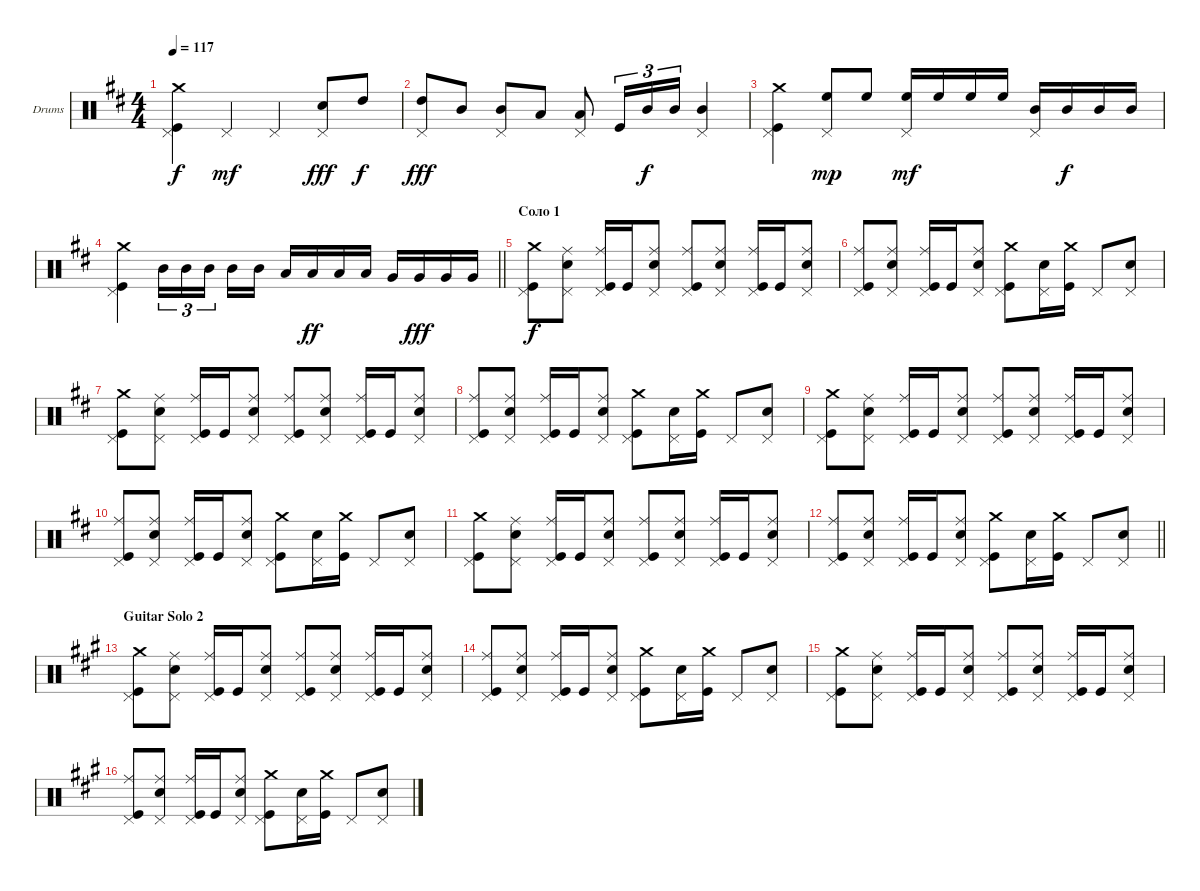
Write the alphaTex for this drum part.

\bracketExtendMode groupsimilarinstruments
\firstSystemTrackNameOrientation horizontal
\otherSystemsTrackNameOrientation horizontal
\track ("Барабаны" "Drums") {instrument percussion}
\staff {score}
\articulation defaults
\ts (4 4)
\tempo 117
\clef neutral
\ks d
("Pedal Hi-Hat (hit)" "Kick (hit)" "Crash medium (hit)").4{dy f} "Pedal Hi-Hat (hit)".4{dy mf} "Pedal Hi-Hat (hit)".4 ("Snare (hit) 2" "Pedal Hi-Hat (hit)").8{dy fff} "High Tom (hit)".8{dy f} |
("High Tom (hit)" "Pedal Hi-Hat (hit)").8{dy fff} "Mid Tom (hit)".8 ("Mid Tom (hit)" "Pedal Hi-Hat (hit)").8 "Low Tom (hit)".8 ("Low Tom (hit)" "Pedal Hi-Hat (hit)").8 "Kick (hit)".16{tu (3 2)} "Mid Tom (hit)".16{tu (3 2) dy f} "Mid Tom (hit)".16{tu (3 2)} ("Mid Tom (hit)" "Pedal Hi-Hat (hit)").4 |
("Kick (hit)" "Crash medium (hit)" "Pedal Hi-Hat (hit)").4 ("High Floor Tom (hit)" "Pedal Hi-Hat (hit)").8{dy mp} "High Floor Tom (hit)".8 ("High Floor Tom (hit)" "Pedal Hi-Hat (hit)").16{dy mf} "High Floor Tom (hit)".16 "High Floor Tom (hit)".16 "High Floor Tom (hit)".16 ("Mid Tom (hit)" "Pedal Hi-Hat (hit)").16 "Mid Tom (hit)".16{dy f} "Mid Tom (hit)".16 "Mid Tom (hit)".16 |
\barLineRight lightlight
("Kick (hit)" "Crash medium (hit)" "Pedal Hi-Hat (hit)").4 "Mid Tom (hit)".16{tu (3 2)} "Mid Tom (hit)".16{tu (3 2)} "Mid Tom (hit)".16{tu (3 2)} "Mid Tom (hit)".16 "Mid Tom (hit)".16 "Low Tom (hit)".16 "Low Tom (hit)".16{dy ff} "Low Tom (hit)".16 "Low Tom (hit)".16 "Very Low Tom (hit)".16 "Very Low Tom (hit)".16{dy fff} "Very Low Tom (hit)".16 "Very Low Tom (hit)".16 |
\section ("" "Соло 1")
("Kick (hit)" "Crash medium (hit)" "Pedal Hi-Hat (hit)").8{dy f} ("Snare (hit) 2" "Pedal Hi-Hat (hit)" "Ride (middle)").8 ("Kick (hit)" "Pedal Hi-Hat (hit)" "Ride (middle)").16 "Kick (hit)".16 ("Snare (hit) 2" "Pedal Hi-Hat (hit)" "Ride (middle)").8 ("Kick (hit)" "Pedal Hi-Hat (hit)" "Ride (middle)").8 ("Snare (hit) 2" "Pedal Hi-Hat (hit)" "Ride (middle)").8 ("Kick (hit)" "Pedal Hi-Hat (hit)" "Ride (middle)").16 "Kick (hit)".16 ("Snare (hit) 2" "Pedal Hi-Hat (hit)" "Ride (middle)").8 |
("Kick (hit)" "Ride (middle)" "Pedal Hi-Hat (hit)").8 ("Snare (hit) 2" "Ride (middle)" "Pedal Hi-Hat (hit)").8 ("Kick (hit)" "Ride (middle)" "Pedal Hi-Hat (hit)").16 "Kick (hit)".16 ("Snare (hit) 2" "Ride (middle)" "Pedal Hi-Hat (hit)").8 ("Kick (hit)" "Crash medium (hit)" "Pedal Hi-Hat (hit)").8 ("Snare (hit) 2" "Pedal Hi-Hat (hit)").16 ("Kick (hit)" "Crash medium (hit)").16 "Pedal Hi-Hat (hit)".8 ("Snare (hit) 2" "Pedal Hi-Hat (hit)").8 |
("Kick (hit)" "Crash medium (hit)" "Pedal Hi-Hat (hit)").8 ("Snare (hit) 2" "Pedal Hi-Hat (hit)" "Ride (middle)").8 ("Kick (hit)" "Pedal Hi-Hat (hit)" "Ride (middle)").16 "Kick (hit)".16 ("Snare (hit) 2" "Pedal Hi-Hat (hit)" "Ride (middle)").8 ("Kick (hit)" "Pedal Hi-Hat (hit)" "Ride (middle)").8 ("Snare (hit) 2" "Pedal Hi-Hat (hit)" "Ride (middle)").8 ("Kick (hit)" "Pedal Hi-Hat (hit)" "Ride (middle)").16 "Kick (hit)".16 ("Snare (hit) 2" "Pedal Hi-Hat (hit)" "Ride (middle)").8 |
("Kick (hit)" "Ride (middle)" "Pedal Hi-Hat (hit)").8 ("Snare (hit) 2" "Ride (middle)" "Pedal Hi-Hat (hit)").8 ("Kick (hit)" "Ride (middle)" "Pedal Hi-Hat (hit)").16 "Kick (hit)".16 ("Snare (hit) 2" "Ride (middle)" "Pedal Hi-Hat (hit)").8 ("Kick (hit)" "Crash medium (hit)" "Pedal Hi-Hat (hit)").8 ("Snare (hit) 2" "Pedal Hi-Hat (hit)").16 ("Kick (hit)" "Crash medium (hit)").16 "Pedal Hi-Hat (hit)".8 ("Snare (hit) 2" "Pedal Hi-Hat (hit)").8 |
("Kick (hit)" "Crash medium (hit)" "Pedal Hi-Hat (hit)").8 ("Snare (hit) 2" "Pedal Hi-Hat (hit)" "Ride (middle)").8 ("Kick (hit)" "Pedal Hi-Hat (hit)" "Ride (middle)").16 "Kick (hit)".16 ("Snare (hit) 2" "Pedal Hi-Hat (hit)" "Ride (middle)").8 ("Kick (hit)" "Pedal Hi-Hat (hit)" "Ride (middle)").8 ("Snare (hit) 2" "Pedal Hi-Hat (hit)" "Ride (middle)").8 ("Kick (hit)" "Pedal Hi-Hat (hit)" "Ride (middle)").16 "Kick (hit)".16 ("Snare (hit) 2" "Pedal Hi-Hat (hit)" "Ride (middle)").8 |
("Kick (hit)" "Ride (middle)" "Pedal Hi-Hat (hit)").8 ("Snare (hit) 2" "Ride (middle)" "Pedal Hi-Hat (hit)").8 ("Kick (hit)" "Ride (middle)" "Pedal Hi-Hat (hit)").16 "Kick (hit)".16 ("Snare (hit) 2" "Ride (middle)" "Pedal Hi-Hat (hit)").8 ("Kick (hit)" "Crash medium (hit)" "Pedal Hi-Hat (hit)").8 ("Snare (hit) 2" "Pedal Hi-Hat (hit)").16 ("Kick (hit)" "Crash medium (hit)").16 "Pedal Hi-Hat (hit)".8 ("Snare (hit) 2" "Pedal Hi-Hat (hit)").8 |
("Kick (hit)" "Crash medium (hit)" "Pedal Hi-Hat (hit)").8 ("Snare (hit) 2" "Pedal Hi-Hat (hit)" "Ride (middle)").8 ("Kick (hit)" "Pedal Hi-Hat (hit)" "Ride (middle)").16 "Kick (hit)".16 ("Snare (hit) 2" "Pedal Hi-Hat (hit)" "Ride (middle)").8 ("Kick (hit)" "Pedal Hi-Hat (hit)" "Ride (middle)").8 ("Snare (hit) 2" "Pedal Hi-Hat (hit)" "Ride (middle)").8 ("Kick (hit)" "Pedal Hi-Hat (hit)" "Ride (middle)").16 "Kick (hit)".16 ("Snare (hit) 2" "Pedal Hi-Hat (hit)" "Ride (middle)").8 |
\barLineRight lightlight
("Kick (hit)" "Ride (middle)" "Pedal Hi-Hat (hit)").8 ("Snare (hit) 2" "Ride (middle)" "Pedal Hi-Hat (hit)").8 ("Kick (hit)" "Ride (middle)" "Pedal Hi-Hat (hit)").16 "Kick (hit)".16 ("Snare (hit) 2" "Ride (middle)" "Pedal Hi-Hat (hit)").8 ("Kick (hit)" "Crash medium (hit)" "Pedal Hi-Hat (hit)").8 ("Snare (hit) 2" "Pedal Hi-Hat (hit)").16 ("Kick (hit)" "Crash medium (hit)").16 "Pedal Hi-Hat (hit)".8 ("Snare (hit) 2" "Pedal Hi-Hat (hit)").8 |
\section ("" "Guitar Solo 2")
\ks f#minor
("Kick (hit)" "Crash medium (hit)" "Pedal Hi-Hat (hit)").8 ("Snare (hit) 2" "Pedal Hi-Hat (hit)" "Ride (middle)").8 ("Kick (hit)" "Pedal Hi-Hat (hit)" "Ride (middle)").16 "Kick (hit)".16 ("Snare (hit) 2" "Pedal Hi-Hat (hit)" "Ride (middle)").8 ("Kick (hit)" "Pedal Hi-Hat (hit)" "Ride (middle)").8 ("Snare (hit) 2" "Pedal Hi-Hat (hit)" "Ride (middle)").8 ("Kick (hit)" "Pedal Hi-Hat (hit)" "Ride (middle)").16 "Kick (hit)".16 ("Snare (hit) 2" "Pedal Hi-Hat (hit)" "Ride (middle)").8 |
("Kick (hit)" "Ride (middle)" "Pedal Hi-Hat (hit)").8 ("Snare (hit) 2" "Ride (middle)" "Pedal Hi-Hat (hit)").8 ("Kick (hit)" "Ride (middle)" "Pedal Hi-Hat (hit)").16 "Kick (hit)".16 ("Snare (hit) 2" "Ride (middle)" "Pedal Hi-Hat (hit)").8 ("Kick (hit)" "Crash medium (hit)" "Pedal Hi-Hat (hit)").8 ("Snare (hit) 2" "Pedal Hi-Hat (hit)").16 ("Kick (hit)" "Crash medium (hit)").16 "Pedal Hi-Hat (hit)".8 ("Snare (hit) 2" "Pedal Hi-Hat (hit)").8 |
("Kick (hit)" "Crash medium (hit)" "Pedal Hi-Hat (hit)").8 ("Snare (hit) 2" "Pedal Hi-Hat (hit)" "Ride (middle)").8 ("Kick (hit)" "Pedal Hi-Hat (hit)" "Ride (middle)").16 "Kick (hit)".16 ("Snare (hit) 2" "Pedal Hi-Hat (hit)" "Ride (middle)").8 ("Kick (hit)" "Pedal Hi-Hat (hit)" "Ride (middle)").8 ("Snare (hit) 2" "Pedal Hi-Hat (hit)" "Ride (middle)").8 ("Kick (hit)" "Pedal Hi-Hat (hit)" "Ride (middle)").16 "Kick (hit)".16 ("Snare (hit) 2" "Pedal Hi-Hat (hit)" "Ride (middle)").8 |
("Kick (hit)" "Ride (middle)" "Pedal Hi-Hat (hit)").8 ("Snare (hit) 2" "Ride (middle)" "Pedal Hi-Hat (hit)").8 ("Kick (hit)" "Ride (middle)" "Pedal Hi-Hat (hit)").16 "Kick (hit)".16 ("Snare (hit) 2" "Ride (middle)" "Pedal Hi-Hat (hit)").8 ("Kick (hit)" "Crash medium (hit)" "Pedal Hi-Hat (hit)").8 ("Snare (hit) 2" "Pedal Hi-Hat (hit)").16 ("Kick (hit)" "Crash medium (hit)").16 "Pedal Hi-Hat (hit)".8 ("Snare (hit) 2" "Pedal Hi-Hat (hit)").8
